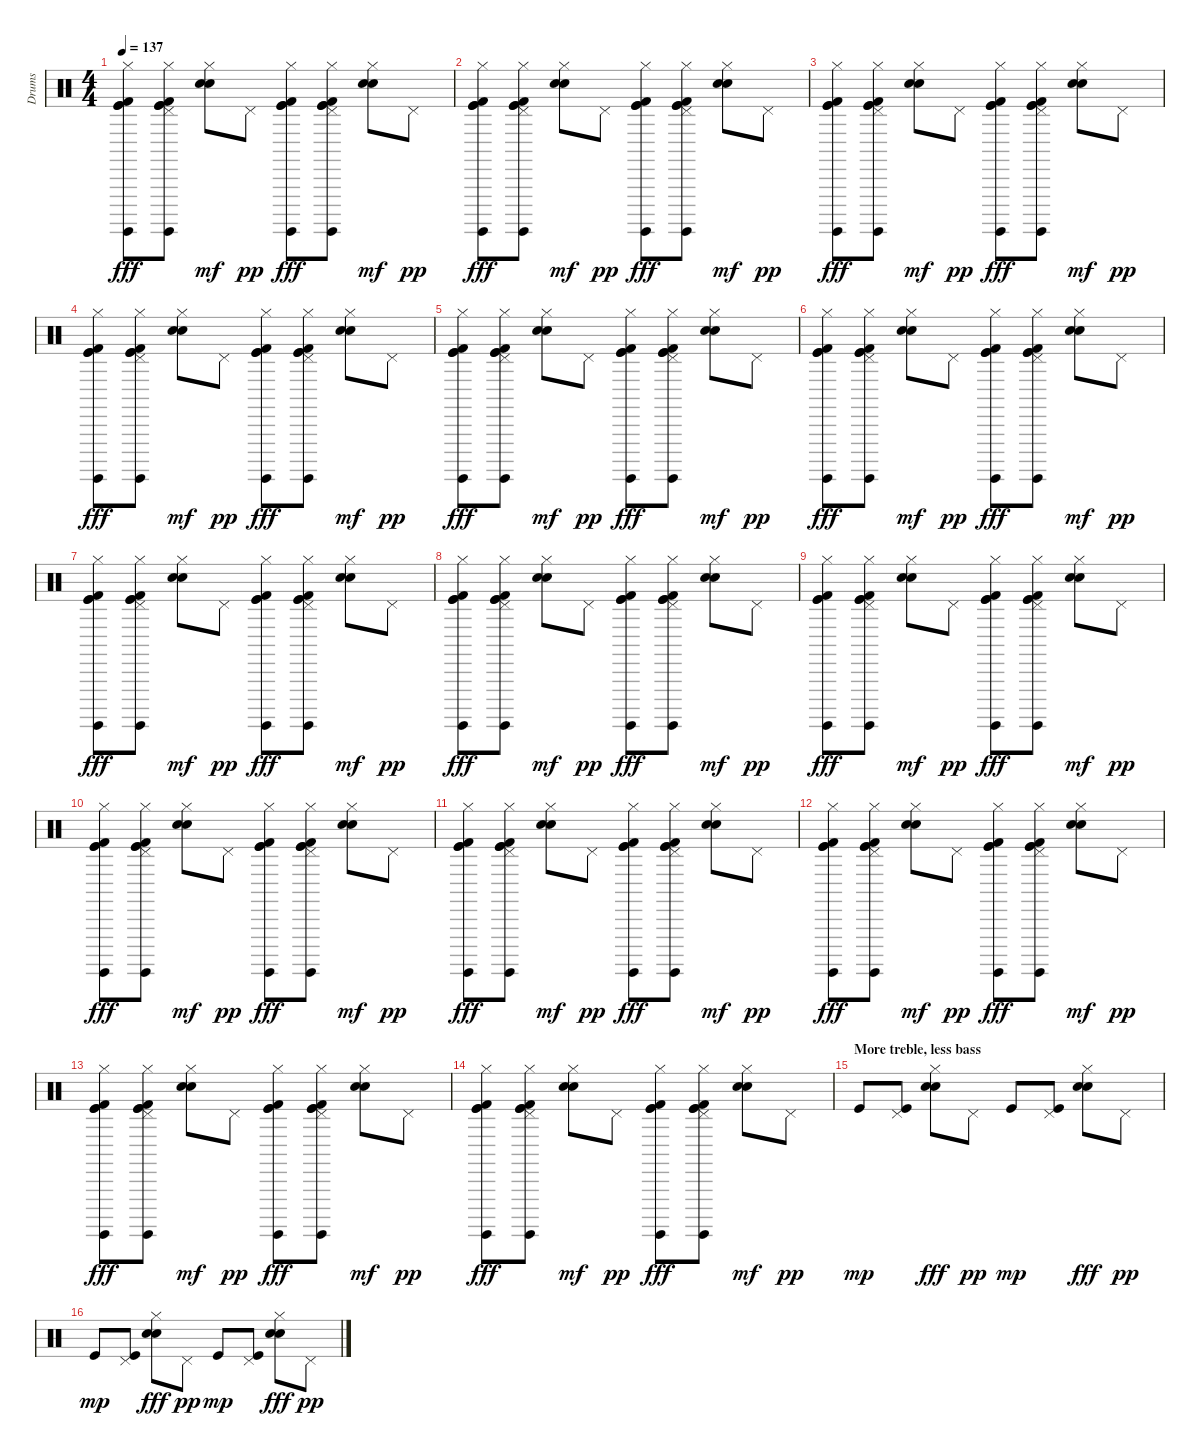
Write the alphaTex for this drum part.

\track ("Drums" "Drums") {instrument percussion}
\staff {score}
\articulation defaults
\ts (4 4)
\tempo 137
\clef neutral
\ks c
("Hi-Hat (closed)" "Kick (hit)" "Surdo (hit)" "Kick (hit) 2" "Kick (hit)").8{dy fff} ("Pedal Hi-Hat (hit)" "Hi-Hat (closed)" "Kick (hit)" "Surdo (hit)" "Kick (hit) 2" "Kick (hit)").8 ("Hi-Hat (closed)" "Hand Clap (hit)" "Snare (hit) 2").8{dy mf} "Pedal Hi-Hat (hit)".8{dy pp} ("Hi-Hat (closed)" "Kick (hit)" "Surdo (hit)" "Kick (hit) 2" "Kick (hit)").8{dy fff} ("Pedal Hi-Hat (hit)" "Hi-Hat (closed)" "Kick (hit)" "Surdo (hit)" "Kick (hit) 2" "Kick (hit)").8 ("Hi-Hat (closed)" "Hand Clap (hit)" "Snare (hit) 2").8{dy mf} "Pedal Hi-Hat (hit)".8{dy pp} |
("Hi-Hat (closed)" "Kick (hit)" "Surdo (hit)" "Kick (hit) 2" "Kick (hit)").8{dy fff} ("Pedal Hi-Hat (hit)" "Hi-Hat (closed)" "Kick (hit)" "Surdo (hit)" "Kick (hit) 2" "Kick (hit)").8 ("Hi-Hat (closed)" "Hand Clap (hit)" "Snare (hit) 2").8{dy mf} "Pedal Hi-Hat (hit)".8{dy pp} ("Hi-Hat (closed)" "Kick (hit)" "Surdo (hit)" "Kick (hit) 2" "Kick (hit)").8{dy fff} ("Pedal Hi-Hat (hit)" "Hi-Hat (closed)" "Kick (hit)" "Surdo (hit)" "Kick (hit) 2" "Kick (hit)").8 ("Hi-Hat (closed)" "Hand Clap (hit)" "Snare (hit) 2").8{dy mf} "Pedal Hi-Hat (hit)".8{dy pp} |
("Hi-Hat (closed)" "Kick (hit)" "Surdo (hit)" "Kick (hit) 2" "Kick (hit)").8{dy fff} ("Pedal Hi-Hat (hit)" "Hi-Hat (closed)" "Kick (hit)" "Surdo (hit)" "Kick (hit) 2" "Kick (hit)").8 ("Hi-Hat (closed)" "Hand Clap (hit)" "Snare (hit) 2").8{dy mf} "Pedal Hi-Hat (hit)".8{dy pp} ("Hi-Hat (closed)" "Kick (hit)" "Surdo (hit)" "Kick (hit) 2" "Kick (hit)").8{dy fff} ("Pedal Hi-Hat (hit)" "Hi-Hat (closed)" "Kick (hit)" "Surdo (hit)" "Kick (hit) 2" "Kick (hit)").8 ("Hi-Hat (closed)" "Hand Clap (hit)" "Snare (hit) 2").8{dy mf} "Pedal Hi-Hat (hit)".8{dy pp} |
("Hi-Hat (closed)" "Kick (hit)" "Surdo (hit)" "Kick (hit) 2" "Kick (hit)").8{dy fff} ("Pedal Hi-Hat (hit)" "Hi-Hat (closed)" "Kick (hit)" "Surdo (hit)" "Kick (hit) 2" "Kick (hit)").8 ("Hi-Hat (closed)" "Hand Clap (hit)" "Snare (hit) 2").8{dy mf} "Pedal Hi-Hat (hit)".8{dy pp} ("Hi-Hat (closed)" "Kick (hit)" "Surdo (hit)" "Kick (hit) 2" "Kick (hit)").8{dy fff} ("Pedal Hi-Hat (hit)" "Hi-Hat (closed)" "Kick (hit)" "Surdo (hit)" "Kick (hit) 2" "Kick (hit)").8 ("Hi-Hat (closed)" "Hand Clap (hit)" "Snare (hit) 2").8{dy mf} "Pedal Hi-Hat (hit)".8{dy pp} |
("Hi-Hat (closed)" "Kick (hit)" "Surdo (hit)" "Kick (hit) 2" "Kick (hit)").8{dy fff} ("Pedal Hi-Hat (hit)" "Hi-Hat (closed)" "Kick (hit)" "Surdo (hit)" "Kick (hit) 2" "Kick (hit)").8 ("Hi-Hat (closed)" "Hand Clap (hit)" "Snare (hit) 2").8{dy mf} "Pedal Hi-Hat (hit)".8{dy pp} ("Hi-Hat (closed)" "Kick (hit)" "Surdo (hit)" "Kick (hit) 2" "Kick (hit)").8{dy fff} ("Pedal Hi-Hat (hit)" "Hi-Hat (closed)" "Kick (hit)" "Surdo (hit)" "Kick (hit) 2" "Kick (hit)").8 ("Hi-Hat (closed)" "Hand Clap (hit)" "Snare (hit) 2").8{dy mf} "Pedal Hi-Hat (hit)".8{dy pp} |
("Hi-Hat (closed)" "Kick (hit)" "Surdo (hit)" "Kick (hit) 2" "Kick (hit)").8{dy fff} ("Pedal Hi-Hat (hit)" "Hi-Hat (closed)" "Kick (hit)" "Surdo (hit)" "Kick (hit) 2" "Kick (hit)").8 ("Hi-Hat (closed)" "Hand Clap (hit)" "Snare (hit) 2").8{dy mf} "Pedal Hi-Hat (hit)".8{dy pp} ("Hi-Hat (closed)" "Kick (hit)" "Surdo (hit)" "Kick (hit) 2" "Kick (hit)").8{dy fff} ("Pedal Hi-Hat (hit)" "Hi-Hat (closed)" "Kick (hit)" "Surdo (hit)" "Kick (hit) 2" "Kick (hit)").8 ("Hi-Hat (closed)" "Hand Clap (hit)" "Snare (hit) 2").8{dy mf} "Pedal Hi-Hat (hit)".8{dy pp} |
("Hi-Hat (closed)" "Kick (hit)" "Surdo (hit)" "Kick (hit) 2" "Kick (hit)").8{dy fff} ("Pedal Hi-Hat (hit)" "Hi-Hat (closed)" "Kick (hit)" "Surdo (hit)" "Kick (hit) 2" "Kick (hit)").8 ("Hi-Hat (closed)" "Hand Clap (hit)" "Snare (hit) 2").8{dy mf} "Pedal Hi-Hat (hit)".8{dy pp} ("Hi-Hat (closed)" "Kick (hit)" "Surdo (hit)" "Kick (hit) 2" "Kick (hit)").8{dy fff} ("Pedal Hi-Hat (hit)" "Hi-Hat (closed)" "Kick (hit)" "Surdo (hit)" "Kick (hit) 2" "Kick (hit)").8 ("Hi-Hat (closed)" "Hand Clap (hit)" "Snare (hit) 2").8{dy mf} "Pedal Hi-Hat (hit)".8{dy pp} |
("Hi-Hat (closed)" "Kick (hit)" "Surdo (hit)" "Kick (hit) 2" "Kick (hit)").8{dy fff} ("Pedal Hi-Hat (hit)" "Hi-Hat (closed)" "Kick (hit)" "Surdo (hit)" "Kick (hit) 2" "Kick (hit)").8 ("Hi-Hat (closed)" "Hand Clap (hit)" "Snare (hit) 2").8{dy mf} "Pedal Hi-Hat (hit)".8{dy pp} ("Hi-Hat (closed)" "Kick (hit)" "Surdo (hit)" "Kick (hit) 2" "Kick (hit)").8{dy fff} ("Pedal Hi-Hat (hit)" "Hi-Hat (closed)" "Kick (hit)" "Surdo (hit)" "Kick (hit) 2" "Kick (hit)").8 ("Hi-Hat (closed)" "Hand Clap (hit)" "Snare (hit) 2").8{dy mf} "Pedal Hi-Hat (hit)".8{dy pp} |
("Hi-Hat (closed)" "Kick (hit)" "Surdo (hit)" "Kick (hit) 2" "Kick (hit)").8{dy fff} ("Pedal Hi-Hat (hit)" "Hi-Hat (closed)" "Kick (hit)" "Surdo (hit)" "Kick (hit) 2" "Kick (hit)").8 ("Hi-Hat (closed)" "Hand Clap (hit)" "Snare (hit) 2").8{dy mf} "Pedal Hi-Hat (hit)".8{dy pp} ("Hi-Hat (closed)" "Kick (hit)" "Surdo (hit)" "Kick (hit) 2" "Kick (hit)").8{dy fff} ("Pedal Hi-Hat (hit)" "Hi-Hat (closed)" "Kick (hit)" "Surdo (hit)" "Kick (hit) 2" "Kick (hit)").8 ("Hi-Hat (closed)" "Hand Clap (hit)" "Snare (hit) 2").8{dy mf} "Pedal Hi-Hat (hit)".8{dy pp} |
("Hi-Hat (closed)" "Kick (hit)" "Surdo (hit)" "Kick (hit) 2" "Kick (hit)").8{dy fff} ("Pedal Hi-Hat (hit)" "Hi-Hat (closed)" "Kick (hit)" "Surdo (hit)" "Kick (hit) 2" "Kick (hit)").8 ("Hi-Hat (closed)" "Hand Clap (hit)" "Snare (hit) 2").8{dy mf} "Pedal Hi-Hat (hit)".8{dy pp} ("Hi-Hat (closed)" "Kick (hit)" "Surdo (hit)" "Kick (hit) 2" "Kick (hit)").8{dy fff} ("Pedal Hi-Hat (hit)" "Hi-Hat (closed)" "Kick (hit)" "Surdo (hit)" "Kick (hit) 2" "Kick (hit)").8 ("Hi-Hat (closed)" "Hand Clap (hit)" "Snare (hit) 2").8{dy mf} "Pedal Hi-Hat (hit)".8{dy pp} |
("Hi-Hat (closed)" "Kick (hit)" "Surdo (hit)" "Kick (hit) 2" "Kick (hit)").8{dy fff} ("Pedal Hi-Hat (hit)" "Hi-Hat (closed)" "Kick (hit)" "Surdo (hit)" "Kick (hit) 2" "Kick (hit)").8 ("Hi-Hat (closed)" "Hand Clap (hit)" "Snare (hit) 2").8{dy mf} "Pedal Hi-Hat (hit)".8{dy pp} ("Hi-Hat (closed)" "Kick (hit)" "Surdo (hit)" "Kick (hit) 2" "Kick (hit)").8{dy fff} ("Pedal Hi-Hat (hit)" "Hi-Hat (closed)" "Kick (hit)" "Surdo (hit)" "Kick (hit) 2" "Kick (hit)").8 ("Hi-Hat (closed)" "Hand Clap (hit)" "Snare (hit) 2").8{dy mf} "Pedal Hi-Hat (hit)".8{dy pp} |
("Hi-Hat (closed)" "Kick (hit)" "Surdo (hit)" "Kick (hit) 2" "Kick (hit)").8{dy fff} ("Pedal Hi-Hat (hit)" "Hi-Hat (closed)" "Kick (hit)" "Surdo (hit)" "Kick (hit) 2" "Kick (hit)").8 ("Hi-Hat (closed)" "Hand Clap (hit)" "Snare (hit) 2").8{dy mf} "Pedal Hi-Hat (hit)".8{dy pp} ("Hi-Hat (closed)" "Kick (hit)" "Surdo (hit)" "Kick (hit) 2" "Kick (hit)").8{dy fff} ("Pedal Hi-Hat (hit)" "Hi-Hat (closed)" "Kick (hit)" "Surdo (hit)" "Kick (hit) 2" "Kick (hit)").8 ("Hi-Hat (closed)" "Hand Clap (hit)" "Snare (hit) 2").8{dy mf} "Pedal Hi-Hat (hit)".8{dy pp} |
("Hi-Hat (closed)" "Kick (hit)" "Surdo (hit)" "Kick (hit) 2" "Kick (hit)").8{dy fff} ("Pedal Hi-Hat (hit)" "Hi-Hat (closed)" "Kick (hit)" "Surdo (hit)" "Kick (hit) 2" "Kick (hit)").8 ("Hi-Hat (closed)" "Hand Clap (hit)" "Snare (hit) 2").8{dy mf} "Pedal Hi-Hat (hit)".8{dy pp} ("Hi-Hat (closed)" "Kick (hit)" "Surdo (hit)" "Kick (hit) 2" "Kick (hit)").8{dy fff} ("Pedal Hi-Hat (hit)" "Hi-Hat (closed)" "Kick (hit)" "Surdo (hit)" "Kick (hit) 2" "Kick (hit)").8 ("Hi-Hat (closed)" "Hand Clap (hit)" "Snare (hit) 2").8{dy mf} "Pedal Hi-Hat (hit)".8{dy pp} |
("Hi-Hat (closed)" "Kick (hit)" "Surdo (hit)" "Kick (hit) 2" "Kick (hit)").8{dy fff} ("Pedal Hi-Hat (hit)" "Hi-Hat (closed)" "Kick (hit)" "Surdo (hit)" "Kick (hit) 2" "Kick (hit)").8 ("Hi-Hat (closed)" "Hand Clap (hit)" "Snare (hit) 2").8{dy mf} "Pedal Hi-Hat (hit)".8{dy pp} ("Hi-Hat (closed)" "Kick (hit)" "Surdo (hit)" "Kick (hit) 2" "Kick (hit)").8{dy fff} ("Pedal Hi-Hat (hit)" "Hi-Hat (closed)" "Kick (hit)" "Surdo (hit)" "Kick (hit) 2" "Kick (hit)").8 ("Hi-Hat (closed)" "Hand Clap (hit)" "Snare (hit) 2").8{dy mf} "Pedal Hi-Hat (hit)".8{dy pp} |
\section ("" "More treble, less bass")
"Kick (hit)".8{dy mp} ("Pedal Hi-Hat (hit)" "Kick (hit)").8 ("Hi-Hat (closed)" "Hand Clap (hit)" "Snare (hit) 2").8{dy fff} "Pedal Hi-Hat (hit)".8{dy pp} "Kick (hit)".8{dy mp} ("Pedal Hi-Hat (hit)" "Kick (hit)").8 ("Hi-Hat (closed)" "Hand Clap (hit)" "Snare (hit) 2").8{dy fff} "Pedal Hi-Hat (hit)".8{dy pp} |
"Kick (hit)".8{dy mp} ("Pedal Hi-Hat (hit)" "Kick (hit)").8 ("Hi-Hat (closed)" "Hand Clap (hit)" "Snare (hit) 2").8{dy fff} "Pedal Hi-Hat (hit)".8{dy pp} "Kick (hit)".8{dy mp} ("Pedal Hi-Hat (hit)" "Kick (hit)").8 ("Hi-Hat (closed)" "Hand Clap (hit)" "Snare (hit) 2").8{dy fff} "Pedal Hi-Hat (hit)".8{dy pp}
